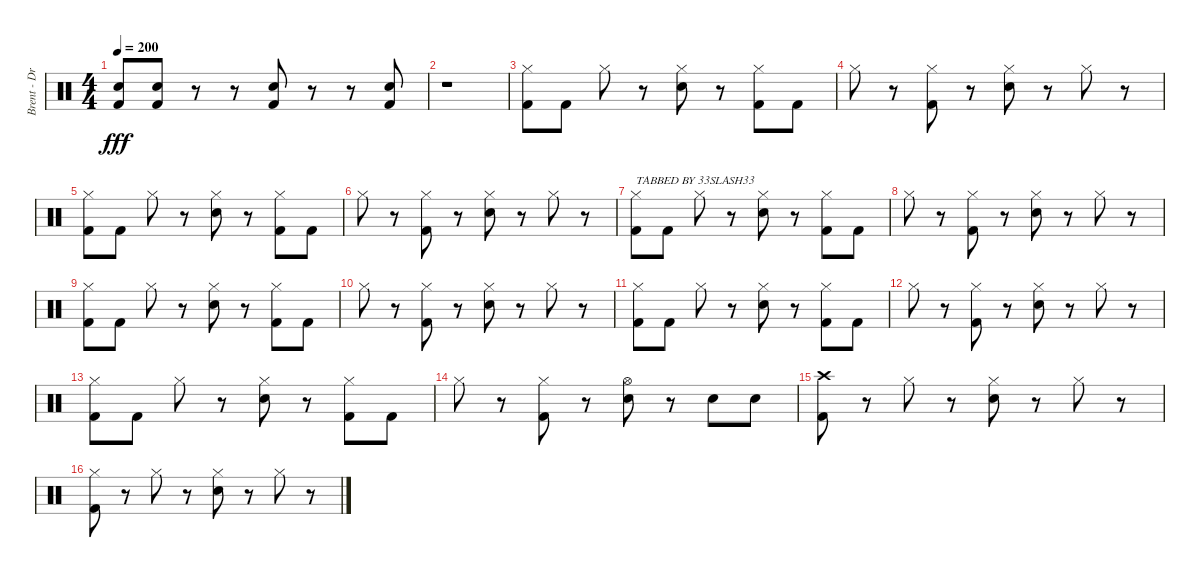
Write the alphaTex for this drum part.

\track ("Brent - Drums" "Brent - Dr") {instrument percussion}
\staff {score}
\articulation defaults
\ts (4 4)
\tempo 200
\clef neutral
\ks c
("Snare (hit) 2" "Kick (hit) 2").8{dy fff} ("Snare (hit) 2" "Kick (hit) 2").8 r.8 r.8 ("Snare (hit) 2" "Kick (hit) 2").8 r.8 r.8 ("Snare (hit) 2" "Kick (hit) 2").8 |
r.1 |
("Hi-Hat (closed)" "Kick (hit) 2").8 "Kick (hit) 2".8 "Hi-Hat (closed)".8 r.8 ("Hi-Hat (closed)" "Snare (hit) 2").8 r.8 ("Hi-Hat (closed)" "Kick (hit) 2").8 "Kick (hit) 2".8 |
"Hi-Hat (closed)".8 r.8 ("Hi-Hat (closed)" "Kick (hit) 2").8 r.8 ("Hi-Hat (closed)" "Snare (hit) 2").8 r.8 "Hi-Hat (closed)".8 r.8 |
("Hi-Hat (closed)" "Kick (hit) 2").8 "Kick (hit) 2".8 "Hi-Hat (closed)".8 r.8 ("Hi-Hat (closed)" "Snare (hit) 2").8 r.8 ("Hi-Hat (closed)" "Kick (hit) 2").8 "Kick (hit) 2".8 |
"Hi-Hat (closed)".8 r.8 ("Hi-Hat (closed)" "Kick (hit) 2").8 r.8 ("Hi-Hat (closed)" "Snare (hit) 2").8 r.8 "Hi-Hat (closed)".8 r.8 |
("Hi-Hat (closed)" "Kick (hit) 2").8{txt "TABBED BY 33SLASH33"} "Kick (hit) 2".8 "Hi-Hat (closed)".8 r.8 ("Hi-Hat (closed)" "Snare (hit) 2").8 r.8 ("Hi-Hat (closed)" "Kick (hit) 2").8 "Kick (hit) 2".8 |
"Hi-Hat (closed)".8 r.8 ("Hi-Hat (closed)" "Kick (hit) 2").8 r.8 ("Hi-Hat (closed)" "Snare (hit) 2").8 r.8 "Hi-Hat (closed)".8 r.8 |
("Hi-Hat (closed)" "Kick (hit) 2").8 "Kick (hit) 2".8 "Hi-Hat (closed)".8 r.8 ("Hi-Hat (closed)" "Snare (hit) 2").8 r.8 ("Hi-Hat (closed)" "Kick (hit) 2").8 "Kick (hit) 2".8 |
"Hi-Hat (closed)".8 r.8 ("Hi-Hat (closed)" "Kick (hit) 2").8 r.8 ("Hi-Hat (closed)" "Snare (hit) 2").8 r.8 "Hi-Hat (closed)".8 r.8 |
("Hi-Hat (closed)" "Kick (hit) 2").8 "Kick (hit) 2".8 "Hi-Hat (closed)".8 r.8 ("Hi-Hat (closed)" "Snare (hit) 2").8 r.8 ("Hi-Hat (closed)" "Kick (hit) 2").8 "Kick (hit) 2".8 |
"Hi-Hat (closed)".8 r.8 ("Hi-Hat (closed)" "Kick (hit) 2").8 r.8 ("Hi-Hat (closed)" "Snare (hit) 2").8 r.8 "Hi-Hat (closed)".8 r.8 |
("Hi-Hat (closed)" "Kick (hit) 2").8 "Kick (hit) 2".8 "Hi-Hat (closed)".8 r.8 ("Hi-Hat (closed)" "Snare (hit) 2").8 r.8 ("Hi-Hat (closed)" "Kick (hit) 2").8 "Kick (hit) 2".8 |
"Hi-Hat (closed)".8 r.8 ("Hi-Hat (closed)" "Kick (hit) 2").8 r.8 ("Hi-Hat (open)" "Snare (hit) 2").8 r.8 "Snare (hit) 2".8 "Snare (hit) 2".8 |
("Crash high (hit)" "Kick (hit) 2").8 r.8 "Hi-Hat (closed)".8 r.8 ("Hi-Hat (closed)" "Snare (hit) 2").8 r.8 "Hi-Hat (closed)".8 r.8 |
("Hi-Hat (closed)" "Kick (hit) 2").8 r.8 "Hi-Hat (closed)".8 r.8 ("Hi-Hat (closed)" "Snare (hit) 2").8 r.8 "Hi-Hat (closed)".8 r.8
